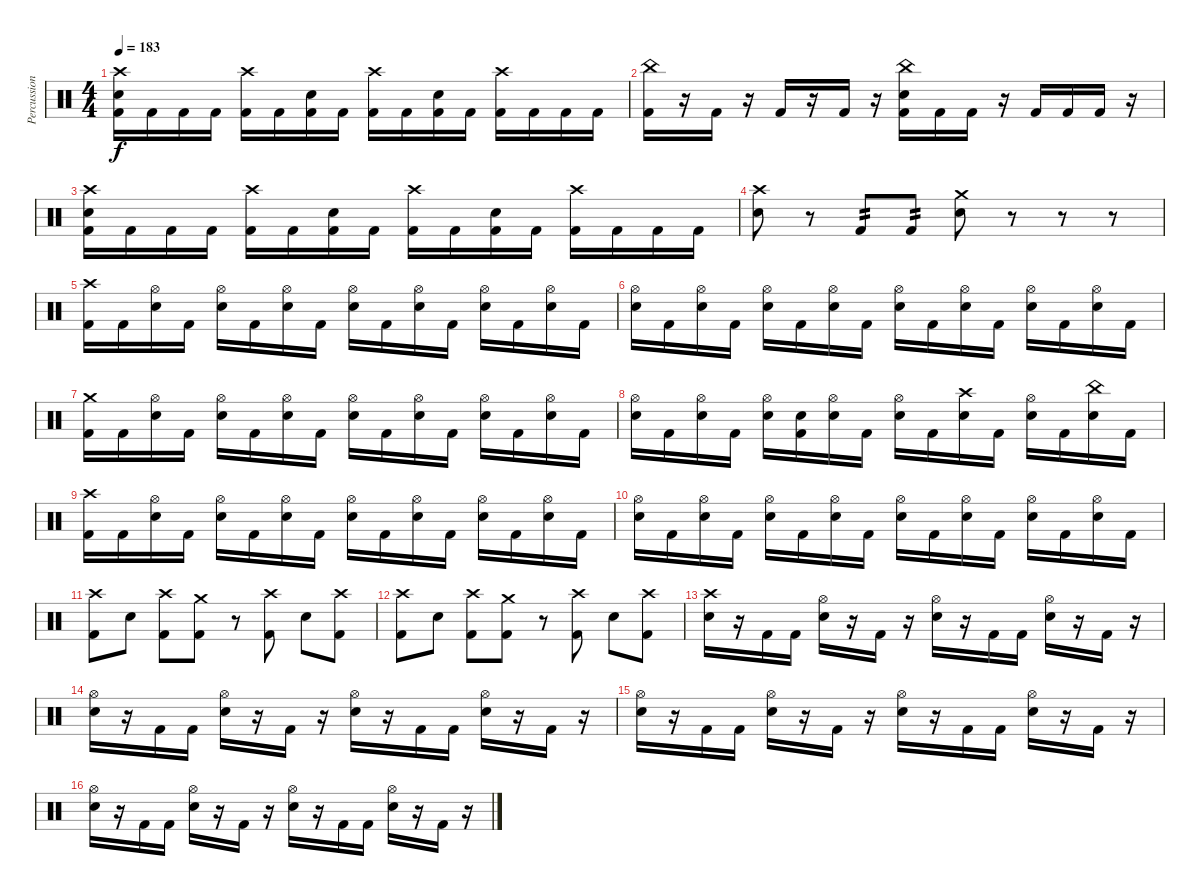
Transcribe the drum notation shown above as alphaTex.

\track ("Percussion" "Percussion") {instrument percussion}
\staff {score}
\articulation defaults
\ts (4 4)
\tempo 183
\clef neutral
\ks c
("Crash high (hit)" "Snare (hit) 2" "Kick (hit) 2").16{dy f} "Kick (hit) 2".16 "Kick (hit) 2".16 "Kick (hit) 2".16 ("Crash high (hit)" "Kick (hit) 2").16 "Kick (hit) 2".16 ("Snare (hit) 2" "Kick (hit) 2").16 "Kick (hit) 2".16 ("Crash high (hit)" "Kick (hit) 2").16 "Kick (hit) 2".16 ("Snare (hit) 2" "Kick (hit) 2").16 "Kick (hit) 2".16 ("Crash high (hit)" "Kick (hit) 2").16 "Kick (hit) 2".16 "Kick (hit) 2".16 "Kick (hit) 2".16 |
("China (hit)" "Kick (hit) 2").16 r.16 "Kick (hit) 2".16 r.16 "Kick (hit) 2".16 r.16 "Kick (hit) 2".16 r.16 ("China (hit)" "Snare (hit) 2" "Kick (hit) 2").16 "Kick (hit) 2".16 "Kick (hit) 2".16 r.16 "Kick (hit) 2".16 "Kick (hit) 2".16 "Kick (hit) 2".16 r.16 |
("Crash high (hit)" "Snare (hit) 2" "Kick (hit) 2").16 "Kick (hit) 2".16 "Kick (hit) 2".16 "Kick (hit) 2".16 ("Crash high (hit)" "Kick (hit) 2").16 "Kick (hit) 2".16 ("Snare (hit) 2" "Kick (hit) 2").16 "Kick (hit) 2".16 ("Crash high (hit)" "Kick (hit) 2").16 "Kick (hit) 2".16 ("Snare (hit) 2" "Kick (hit) 2").16 "Kick (hit) 2".16 ("Crash high (hit)" "Kick (hit) 2").16 "Kick (hit) 2".16 "Kick (hit) 2".16 "Kick (hit) 2".16 |
("Crash high (hit)" "Snare (hit) 2").8 r.8 "Kick (hit) 2".8{tp 2} "Kick (hit) 2".8{tp 2} ("Crash medium (hit)" "Snare (hit) 2").8 r.8 r.8 r.8 |
("Crash high (hit)" "Kick (hit) 2").16 "Kick (hit) 2".16 ("Hi-Hat (open)" "Snare (hit) 2").16 "Kick (hit) 2".16 ("Hi-Hat (open)" "Snare (hit) 2").16 "Kick (hit) 2".16 ("Hi-Hat (open)" "Snare (hit) 2").16 "Kick (hit) 2".16 ("Hi-Hat (open)" "Snare (hit) 2").16 "Kick (hit) 2".16 ("Hi-Hat (open)" "Snare (hit) 2").16 "Kick (hit) 2".16 ("Hi-Hat (open)" "Snare (hit) 2").16 "Kick (hit) 2".16 ("Hi-Hat (open)" "Snare (hit) 2").16 "Kick (hit) 2".16 |
("Hi-Hat (open)" "Snare (hit) 2").16 "Kick (hit) 2".16 ("Hi-Hat (open)" "Snare (hit) 2").16 "Kick (hit) 2".16 ("Hi-Hat (open)" "Snare (hit) 2").16 "Kick (hit) 2".16 ("Hi-Hat (open)" "Snare (hit) 2").16 "Kick (hit) 2".16 ("Hi-Hat (open)" "Snare (hit) 2").16 "Kick (hit) 2".16 ("Hi-Hat (open)" "Snare (hit) 2").16 "Kick (hit) 2".16 ("Hi-Hat (open)" "Snare (hit) 2").16 "Kick (hit) 2".16 ("Hi-Hat (open)" "Snare (hit) 2").16 "Kick (hit) 2".16 |
("Crash medium (hit)" "Kick (hit) 2").16 "Kick (hit) 2".16 ("Hi-Hat (open)" "Snare (hit) 2").16 "Kick (hit) 2".16 ("Hi-Hat (open)" "Snare (hit) 2").16 "Kick (hit) 2".16 ("Hi-Hat (open)" "Snare (hit) 2").16 "Kick (hit) 2".16 ("Hi-Hat (open)" "Snare (hit) 2").16 "Kick (hit) 2".16 ("Hi-Hat (open)" "Snare (hit) 2").16 "Kick (hit) 2".16 ("Hi-Hat (open)" "Snare (hit) 2").16 "Kick (hit) 2".16 ("Hi-Hat (open)" "Snare (hit) 2").16 "Kick (hit) 2".16 |
("Hi-Hat (open)" "Snare (hit) 2").16 "Kick (hit) 2".16 ("Hi-Hat (open)" "Snare (hit) 2").16 "Kick (hit) 2".16 ("Hi-Hat (open)" "Snare (hit) 2").16 ("Snare (hit) 2" "Kick (hit) 2").16 ("Hi-Hat (open)" "Snare (hit) 2").16 "Kick (hit) 2".16 ("Hi-Hat (open)" "Snare (hit) 2").16 "Kick (hit) 2".16 ("Crash high (hit)" "Snare (hit) 2").16 "Kick (hit) 2".16 ("Hi-Hat (open)" "Snare (hit) 2").16 "Kick (hit) 2".16 ("China (hit)" "Snare (hit) 2").16 "Kick (hit) 2".16 |
("Crash high (hit)" "Kick (hit) 2").16 "Kick (hit) 2".16 ("Hi-Hat (open)" "Snare (hit) 2").16 "Kick (hit) 2".16 ("Hi-Hat (open)" "Snare (hit) 2").16 "Kick (hit) 2".16 ("Hi-Hat (open)" "Snare (hit) 2").16 "Kick (hit) 2".16 ("Hi-Hat (open)" "Snare (hit) 2").16 "Kick (hit) 2".16 ("Hi-Hat (open)" "Snare (hit) 2").16 "Kick (hit) 2".16 ("Hi-Hat (open)" "Snare (hit) 2").16 "Kick (hit) 2".16 ("Hi-Hat (open)" "Snare (hit) 2").16 "Kick (hit) 2".16 |
("Hi-Hat (open)" "Snare (hit) 2").16 "Kick (hit) 2".16 ("Hi-Hat (open)" "Snare (hit) 2").16 "Kick (hit) 2".16 ("Hi-Hat (open)" "Snare (hit) 2").16 "Kick (hit) 2".16 ("Hi-Hat (open)" "Snare (hit) 2").16 "Kick (hit) 2".16 ("Hi-Hat (open)" "Snare (hit) 2").16 "Kick (hit) 2".16 ("Hi-Hat (open)" "Snare (hit) 2").16 "Kick (hit) 2".16 ("Hi-Hat (open)" "Snare (hit) 2").16 "Kick (hit) 2".16 ("Hi-Hat (open)" "Snare (hit) 2").16 "Kick (hit) 2".16 |
("Crash high (hit)" "Kick (hit) 2").8 "Snare (hit) 2".8 ("Crash high (hit)" "Kick (hit) 2").8 ("Crash medium (hit)" "Kick (hit) 2").8 r.8 ("Crash high (hit)" "Kick (hit) 2").8 "Snare (hit) 2".8 ("Crash high (hit)" "Kick (hit) 2").8 |
("Crash high (hit)" "Kick (hit) 2").8 "Snare (hit) 2".8 ("Crash high (hit)" "Kick (hit) 2").8 ("Crash medium (hit)" "Kick (hit) 2").8 r.8 ("Crash high (hit)" "Kick (hit) 2").8 "Snare (hit) 2".8 ("Crash high (hit)" "Kick (hit) 2").8 |
("Crash high (hit)" "Snare (hit) 2").16 r.16 "Kick (hit) 2".16 "Kick (hit) 2".16 ("Hi-Hat (open)" "Snare (hit) 2").16 r.16 "Kick (hit) 2".16 r.16 ("Hi-Hat (open)" "Snare (hit) 2").16 r.16 "Kick (hit) 2".16 "Kick (hit) 2".16 ("Hi-Hat (open)" "Snare (hit) 2").16 r.16 "Kick (hit) 2".16 r.16 |
("Hi-Hat (open)" "Snare (hit) 2").16 r.16 "Kick (hit) 2".16 "Kick (hit) 2".16 ("Hi-Hat (open)" "Snare (hit) 2").16 r.16 "Kick (hit) 2".16 r.16 ("Hi-Hat (open)" "Snare (hit) 2").16 r.16 "Kick (hit) 2".16 "Kick (hit) 2".16 ("Hi-Hat (open)" "Snare (hit) 2").16 r.16 "Kick (hit) 2".16 r.16 |
("Hi-Hat (open)" "Snare (hit) 2").16 r.16 "Kick (hit) 2".16 "Kick (hit) 2".16 ("Hi-Hat (open)" "Snare (hit) 2").16 r.16 "Kick (hit) 2".16 r.16 ("Hi-Hat (open)" "Snare (hit) 2").16 r.16 "Kick (hit) 2".16 "Kick (hit) 2".16 ("Hi-Hat (open)" "Snare (hit) 2").16 r.16 "Kick (hit) 2".16 r.16 |
("Hi-Hat (open)" "Snare (hit) 2").16 r.16 "Kick (hit) 2".16 "Kick (hit) 2".16 ("Hi-Hat (open)" "Snare (hit) 2").16 r.16 "Kick (hit) 2".16 r.16 ("Hi-Hat (open)" "Snare (hit) 2").16 r.16 "Kick (hit) 2".16 "Kick (hit) 2".16 ("Hi-Hat (open)" "Snare (hit) 2").16 r.16 "Kick (hit) 2".16 r.16
